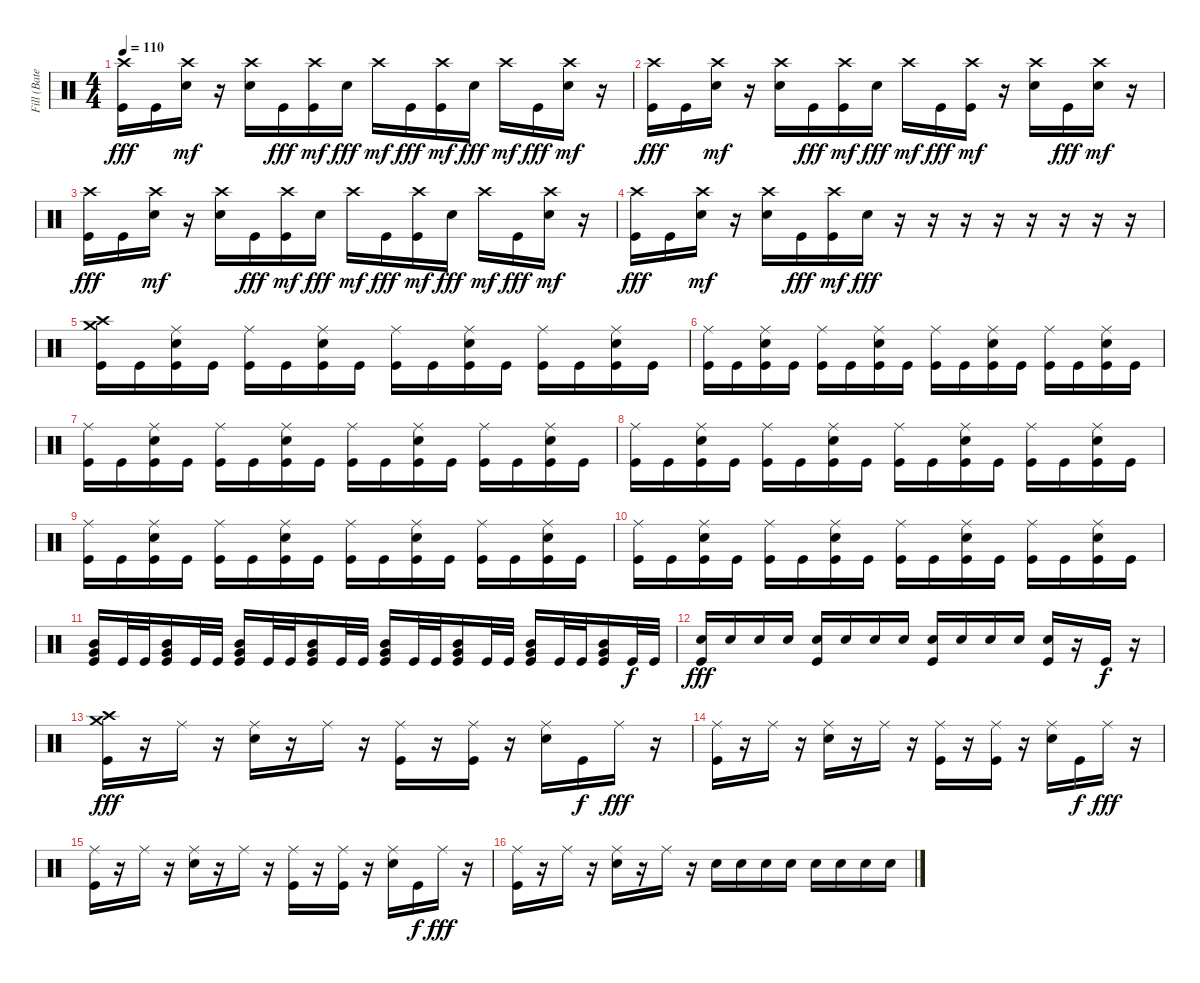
\track ("Fill (Bateria)" "Fill (Bate") {instrument percussion}
\staff {score}
\articulation defaults
\ts (4 4)
\tempo 110
\clef neutral
\ks c
("Kick (hit)" "Crash high (hit)").16{dy fff} "Kick (hit)".16 ("Electric Snare (hit)" "Crash high (hit)").16{dy mf} r.16 ("Electric Snare (hit)" "Crash high (hit)").16 "Kick (hit)".16{dy fff} ("Kick (hit)" "Crash high (hit)").16{dy mf} "Electric Snare (hit)".16{dy fff} "Crash high (hit)".16{dy mf} "Kick (hit)".16{dy fff} ("Kick (hit)" "Crash high (hit)").16{dy mf} "Electric Snare (hit)".16{dy fff} "Crash high (hit)".16{dy mf} "Kick (hit)".16{dy fff} ("Electric Snare (hit)" "Crash high (hit)").16{dy mf} r.16 |
("Kick (hit)" "Crash high (hit)").16{dy fff} "Kick (hit)".16 ("Electric Snare (hit)" "Crash high (hit)").16{dy mf} r.16 ("Electric Snare (hit)" "Crash high (hit)").16 "Kick (hit)".16{dy fff} ("Kick (hit)" "Crash high (hit)").16{dy mf} "Electric Snare (hit)".16{dy fff} "Crash high (hit)".16{dy mf} "Kick (hit)".16{dy fff} ("Kick (hit)" "Crash high (hit)").16{dy mf} r.16 ("Electric Snare (hit)" "Crash high (hit)").16 "Kick (hit)".16{dy fff} ("Electric Snare (hit)" "Crash high (hit)").16{dy mf} r.16 |
("Kick (hit)" "Crash high (hit)").16{dy fff} "Kick (hit)".16 ("Electric Snare (hit)" "Crash high (hit)").16{dy mf} r.16 ("Electric Snare (hit)" "Crash high (hit)").16 "Kick (hit)".16{dy fff} ("Kick (hit)" "Crash high (hit)").16{dy mf} "Electric Snare (hit)".16{dy fff} "Crash high (hit)".16{dy mf} "Kick (hit)".16{dy fff} ("Kick (hit)" "Crash high (hit)").16{dy mf} "Electric Snare (hit)".16{dy fff} "Crash high (hit)".16{dy mf} "Kick (hit)".16{dy fff} ("Electric Snare (hit)" "Crash high (hit)").16{dy mf} r.16 |
("Kick (hit)" "Crash high (hit)").16{dy fff} "Kick (hit)".16 ("Electric Snare (hit)" "Crash high (hit)").16{dy mf} r.16 ("Electric Snare (hit)" "Crash high (hit)").16 "Kick (hit)".16{dy fff} ("Kick (hit)" "Crash high (hit)").16{dy mf} "Electric Snare (hit)".16{dy fff} r.16 r.16 r.16 r.16 r.16 r.16 r.16 r.16 |
("Kick (hit)" "Crash high (hit)" "Crash medium (hit)").16 "Kick (hit)".16 ("Electric Snare (hit)" "Ride (middle)" "Kick (hit)").16 "Kick (hit)".16 ("Ride (middle)" "Kick (hit)").16 "Kick (hit)".16 ("Electric Snare (hit)" "Ride (middle)" "Kick (hit)").16 "Kick (hit)".16 ("Ride (middle)" "Kick (hit)").16 "Kick (hit)".16 ("Electric Snare (hit)" "Ride (middle)" "Kick (hit)").16 "Kick (hit)".16 ("Ride (middle)" "Kick (hit)").16 "Kick (hit)".16 ("Electric Snare (hit)" "Ride (middle)" "Kick (hit)").16 "Kick (hit)".16 |
("Ride (middle)" "Kick (hit)").16 "Kick (hit)".16 ("Electric Snare (hit)" "Ride (middle)" "Kick (hit)").16 "Kick (hit)".16 ("Ride (middle)" "Kick (hit)").16 "Kick (hit)".16 ("Electric Snare (hit)" "Ride (middle)" "Kick (hit)").16 "Kick (hit)".16 ("Ride (middle)" "Kick (hit)").16 "Kick (hit)".16 ("Electric Snare (hit)" "Ride (middle)" "Kick (hit)").16 "Kick (hit)".16 ("Ride (middle)" "Kick (hit)").16 "Kick (hit)".16 ("Electric Snare (hit)" "Ride (middle)" "Kick (hit)").16 "Kick (hit)".16 |
("Ride (middle)" "Kick (hit)").16 "Kick (hit)".16 ("Electric Snare (hit)" "Ride (middle)" "Kick (hit)").16 "Kick (hit)".16 ("Ride (middle)" "Kick (hit)").16 "Kick (hit)".16 ("Electric Snare (hit)" "Ride (middle)" "Kick (hit)").16 "Kick (hit)".16 ("Ride (middle)" "Kick (hit)").16 "Kick (hit)".16 ("Electric Snare (hit)" "Ride (middle)" "Kick (hit)").16 "Kick (hit)".16 ("Ride (middle)" "Kick (hit)").16 "Kick (hit)".16 ("Electric Snare (hit)" "Ride (middle)" "Kick (hit)").16 "Kick (hit)".16 |
("Ride (middle)" "Kick (hit)").16 "Kick (hit)".16 ("Electric Snare (hit)" "Ride (middle)" "Kick (hit)").16 "Kick (hit)".16 ("Ride (middle)" "Kick (hit)").16 "Kick (hit)".16 ("Electric Snare (hit)" "Ride (middle)" "Kick (hit)").16 "Kick (hit)".16 ("Ride (middle)" "Kick (hit)").16 "Kick (hit)".16 ("Electric Snare (hit)" "Ride (middle)" "Kick (hit)").16 "Kick (hit)".16 ("Ride (middle)" "Kick (hit)").16 "Kick (hit)".16 ("Electric Snare (hit)" "Ride (middle)" "Kick (hit)").16 "Kick (hit)".16 |
("Ride (middle)" "Kick (hit)").16 "Kick (hit)".16 ("Electric Snare (hit)" "Ride (middle)" "Kick (hit)").16 "Kick (hit)".16 ("Ride (middle)" "Kick (hit)").16 "Kick (hit)".16 ("Electric Snare (hit)" "Ride (middle)" "Kick (hit)").16 "Kick (hit)".16 ("Ride (middle)" "Kick (hit)").16 "Kick (hit)".16 ("Electric Snare (hit)" "Ride (middle)" "Kick (hit)").16 "Kick (hit)".16 ("Ride (middle)" "Kick (hit)").16 "Kick (hit)".16 ("Electric Snare (hit)" "Ride (middle)" "Kick (hit)").16 "Kick (hit)".16 |
("Ride (middle)" "Kick (hit)").16 "Kick (hit)".16 ("Electric Snare (hit)" "Ride (middle)" "Kick (hit)").16 "Kick (hit)".16 ("Ride (middle)" "Kick (hit)").16 "Kick (hit)".16 ("Electric Snare (hit)" "Ride (middle)" "Kick (hit)").16 "Kick (hit)".16 ("Ride (middle)" "Kick (hit)").16 "Kick (hit)".16 ("Electric Snare (hit)" "Ride (middle)" "Kick (hit)").16 "Kick (hit)".16 ("Ride (middle)" "Kick (hit)").16 "Kick (hit)".16 ("Electric Snare (hit)" "Ride (middle)" "Kick (hit)").16 "Kick (hit)".16 |
("Mid Tom (hit)" "Very Low Tom (hit)" "Kick (hit)").16 "Kick (hit)".32 "Kick (hit)".32 ("Mid Tom (hit)" "Very Low Tom (hit)" "Kick (hit)").16 "Kick (hit)".32 "Kick (hit)".32 ("Mid Tom (hit)" "Very Low Tom (hit)" "Kick (hit)").16 "Kick (hit)".32 "Kick (hit)".32 ("Mid Tom (hit)" "Very Low Tom (hit)" "Kick (hit)").16 "Kick (hit)".32 "Kick (hit)".32 ("Mid Tom (hit)" "Very Low Tom (hit)" "Kick (hit)").16 "Kick (hit)".32 "Kick (hit)".32 ("Mid Tom (hit)" "Very Low Tom (hit)" "Kick (hit)").16 "Kick (hit)".32 "Kick (hit)".32 ("Mid Tom (hit)" "Very Low Tom (hit)" "Kick (hit)").16 "Kick (hit)".32 "Kick (hit)".32 ("Mid Tom (hit)" "Very Low Tom (hit)" "Kick (hit)").16 "Kick (hit)".32{dy f} "Kick (hit)".32 |
("Electric Snare (hit)" "Kick (hit)").16{dy fff} "Electric Snare (hit)".16 "Electric Snare (hit)".16 "Electric Snare (hit)".16 ("Electric Snare (hit)" "Kick (hit)").16 "Electric Snare (hit)".16 "Electric Snare (hit)".16 "Electric Snare (hit)".16 ("Electric Snare (hit)" "Kick (hit)").16 "Electric Snare (hit)".16 "Electric Snare (hit)".16 "Electric Snare (hit)".16 ("Electric Snare (hit)" "Kick (hit)").16 r.16 "Kick (hit)".16{dy f} r.16 |
("Kick (hit)" "Crash high (hit)" "Crash medium (hit)").16{dy fff} r.16 "Ride (middle)".16 r.16 ("Electric Snare (hit)" "Ride (middle)").16 r.16 "Ride (middle)".16 r.16 ("Ride (middle)" "Kick (hit)").16 r.16 ("Ride (middle)" "Kick (hit)").16 r.16 ("Electric Snare (hit)" "Ride (middle)").16 "Kick (hit)".16{dy f} "Ride (middle)".16{dy fff} r.16 |
("Ride (middle)" "Kick (hit)").16 r.16 "Ride (middle)".16 r.16 ("Electric Snare (hit)" "Ride (middle)").16 r.16 "Ride (middle)".16 r.16 ("Ride (middle)" "Kick (hit)").16 r.16 ("Ride (middle)" "Kick (hit)").16 r.16 ("Electric Snare (hit)" "Ride (middle)").16 "Kick (hit)".16{dy f} "Ride (middle)".16{dy fff} r.16 |
("Ride (middle)" "Kick (hit)").16 r.16 "Ride (middle)".16 r.16 ("Electric Snare (hit)" "Ride (middle)").16 r.16 "Ride (middle)".16 r.16 ("Ride (middle)" "Kick (hit)").16 r.16 ("Ride (middle)" "Kick (hit)").16 r.16 ("Electric Snare (hit)" "Ride (middle)").16 "Kick (hit)".16{dy f} "Ride (middle)".16{dy fff} r.16 |
("Ride (middle)" "Kick (hit)").16 r.16 "Ride (middle)".16 r.16 ("Electric Snare (hit)" "Ride (middle)").16 r.16 "Ride (middle)".16 r.16 "Electric Snare (hit)".16 "Electric Snare (hit)".16 "Electric Snare (hit)".16 "Electric Snare (hit)".16 "Electric Snare (hit)".16 "Electric Snare (hit)".16 "Electric Snare (hit)".16 "Electric Snare (hit)".16
